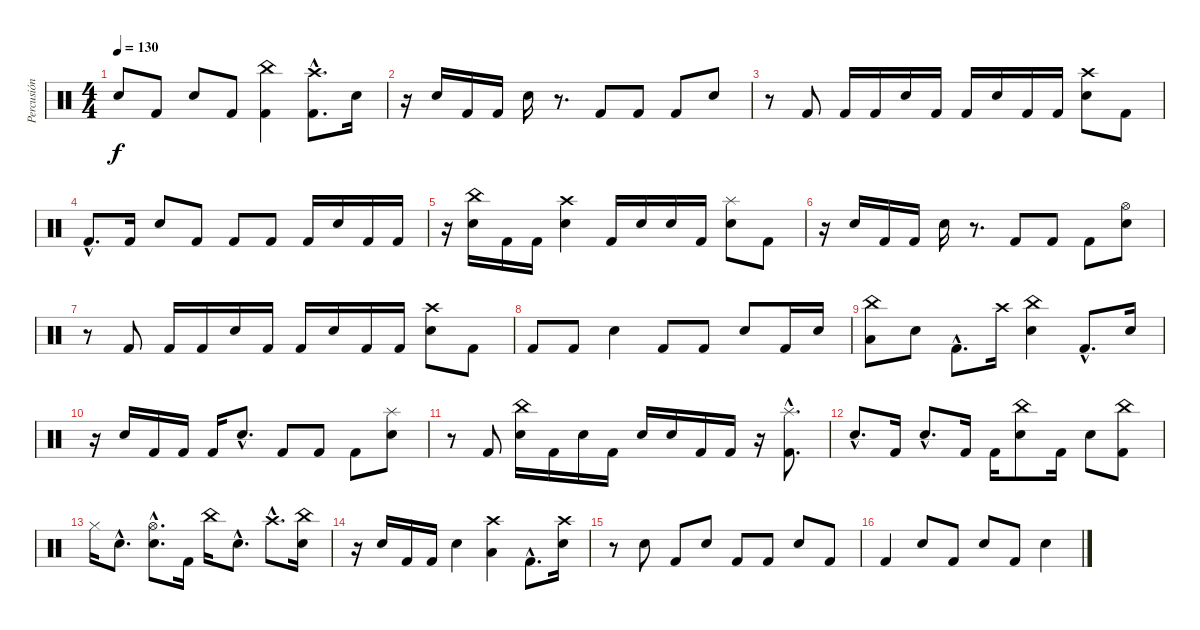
\track ("Percusión" "Percusión") {instrument percussion}
\staff {score}
\articulation defaults
\ts (4 4)
\tempo 130
\clef neutral
\ks c "Electric Snare (hit)".8{dy f} "Kick (hit) 2".8 "Electric Snare (hit)".8 "Kick (hit) 2".8
("China (hit)" "Kick (hit) 2").4 ("Crash high (hit)"{hac} "Kick (hit) 2"{hac}).8{d} "Electric Snare (hit)".16 |
r.16 "Electric Snare (hit)".16 "Kick (hit) 2".16 "Kick (hit) 2".16 "Electric Snare (hit)".16 r.8{d} "Kick (hit) 2".8 "Kick (hit) 2".8 "Kick (hit) 2".8 "Electric Snare (hit)".8 |
r.8 "Kick (hit) 2".8 "Kick (hit) 2".16 "Kick (hit) 2".16 "Electric Snare (hit)".16 "Kick (hit) 2".16 "Kick (hit) 2".16 "Electric Snare (hit)".16 "Kick (hit) 2".16 "Kick (hit) 2".16 ("Crash high (hit)" "Electric Snare (hit)").8 "Kick (hit) 2".8 |
"Kick (hit) 2"{hac}.8{d} "Kick (hit) 2".16 "Electric Snare (hit)".8 "Kick (hit) 2".8 "Kick (hit) 2".8 "Kick (hit) 2".8 "Kick (hit) 2".16 "Electric Snare (hit)".16 "Kick (hit) 2".16 "Kick (hit) 2".16 |
r.16 ("China (hit)" "Electric Snare (hit)").16 "Kick (hit) 2".16 "Kick (hit) 2".16 ("Crash high (hit)" "Electric Snare (hit)").4 "Kick (hit) 2".16 "Electric Snare (hit)".16 "Electric Snare (hit)".16 "Kick (hit) 2".16 ("Splash (hit)" "Electric Snare (hit)").8 "Kick (hit) 2".8 |
r.16 "Electric Snare (hit)".16 "Kick (hit) 2".16 "Kick (hit) 2".16 "Electric Snare (hit)".16 r.8{d} "Kick (hit) 2".8 "Kick (hit) 2".8 "Kick (hit) 2".8 ("Hi-Hat (open)" "Electric Snare (hit)").8 |
r.8 "Kick (hit) 2".8 "Kick (hit) 2".16 "Kick (hit) 2".16 "Electric Snare (hit)".16 "Kick (hit) 2".16 "Kick (hit) 2".16 "Electric Snare (hit)".16 "Kick (hit) 2".16 "Kick (hit) 2".16 ("Crash high (hit)" "Electric Snare (hit)").8 "Kick (hit) 2".8 |
"Kick (hit) 2".8 "Kick (hit) 2".8 "Electric Snare (hit)".4 "Kick (hit) 2".8 "Kick (hit) 2".8 "Electric Snare (hit)".8 "Kick (hit) 2".16 "Electric Snare (hit)".16 |
("China (hit)" "Low Floor Tom (hit)").8 "Electric Snare (hit)".8 "Kick (hit) 2"{hac}.8{d} "Crash high (hit)".16 ("China (hit)" "Electric Snare (hit)").4 "Kick (hit) 2"{hac}.8{d} "Electric Snare (hit)".16 |
r.16 "Electric Snare (hit)".16 "Kick (hit) 2".16 "Kick (hit) 2".16 "Kick (hit) 2".16 "Electric Snare (hit)"{hac}.8{d} "Kick (hit) 2".8 "Kick (hit) 2".8 "Kick (hit) 2".8 ("Splash (hit)" "Electric Snare (hit)").8 |
r.8 "Kick (hit) 2".8 ("China (hit)" "Electric Snare (hit)").16 "Kick (hit) 2".16 "Electric Snare (hit)".16 "Kick (hit) 2".16 "Electric Snare (hit)".16 "Electric Snare (hit)".16 "Kick (hit) 2".16 "Kick (hit) 2".16 r.16 ("Splash (hit)"{hac} "Kick (hit) 2"{hac}).8{d} |
"Electric Snare (hit)"{hac}.8{d} "Kick (hit) 2".16 "Electric Snare (hit)"{hac}.8{d} "Kick (hit) 2".16 "Kick (hit) 2".16 ("China (hit)" "Electric Snare (hit)").8 "Kick (hit) 2".16 "Electric Snare (hit)".8 ("China (hit)" "Kick (hit) 2").8 |
"Hi-Hat (closed)".16 "Electric Snare (hit)"{hac}.8{d} ("Hi-Hat (open)"{hac} "Electric Snare (hit)"{hac}).8{d} "Kick (hit) 2".16 "China (hit)".16 "Electric Snare (hit)"{hac}.8{d} "Crash high (hit)"{hac}.8{d} ("China (hit)" "Electric Snare (hit)").16 |
r.16 "Electric Snare (hit)".16 "Kick (hit) 2".16 "Kick (hit) 2".16 "Electric Snare (hit)".4 ("Crash high (hit)" "Low Floor Tom (hit)").4 "Kick (hit) 2"{hac}.8{d} ("Crash high (hit)" "Electric Snare (hit)").16 |
r.8 "Electric Snare (hit)".8 "Kick (hit) 2".8 "Electric Snare (hit)".8 "Kick (hit) 2".8 "Kick (hit) 2".8 "Electric Snare (hit)".8 "Kick (hit) 2".8 |
"Kick (hit) 2".4 "Electric Snare (hit)".8 "Kick (hit) 2".8 "Electric Snare (hit)".8 "Kick (hit) 2".8 "Electric Snare (hit)".4
